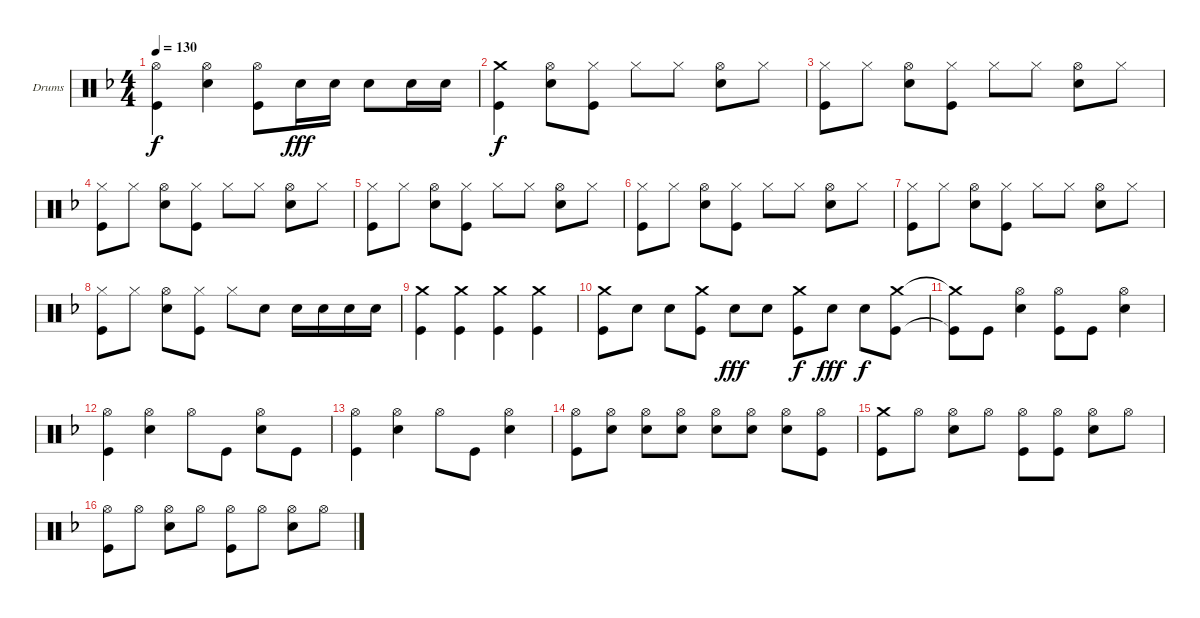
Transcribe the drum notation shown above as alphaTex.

\bracketExtendMode groupsimilarinstruments
\firstSystemTrackNameOrientation horizontal
\otherSystemsTrackNameOrientation horizontal
\track ("Александр Манякин" "Drums") {instrument percussion}
\staff {score}
\articulation defaults
\ts (4 4)
\tempo 130
\clef neutral
\ks f
("Hi-Hat (open)" "Kick (hit)").4{dy f} ("Hi-Hat (open)" "Snare (hit) 2").4 ("Hi-Hat (open)" "Kick (hit)").8 "Snare (hit) 2".16{dy fff} "Snare (hit) 2".16 "Snare (hit) 2".8 "Snare (hit) 2".16 "Snare (hit) 2".16 |
("Crash medium (hit)" "Kick (hit)").4{dy f} ("Hi-Hat (open)" "Snare (hit) 2").8 ("Hi-Hat (closed)" "Kick (hit)").8 "Hi-Hat (closed)".8 "Hi-Hat (closed)".8 ("Hi-Hat (open)" "Snare (hit) 2").8 "Hi-Hat (closed)".8 |
("Hi-Hat (closed)" "Kick (hit)").8 "Hi-Hat (closed)".8 ("Hi-Hat (open)" "Snare (hit) 2").8 ("Hi-Hat (closed)" "Kick (hit)").8 "Hi-Hat (closed)".8 "Hi-Hat (closed)".8 ("Hi-Hat (open)" "Snare (hit) 2").8 "Hi-Hat (closed)".8 |
("Hi-Hat (closed)" "Kick (hit)").8 "Hi-Hat (closed)".8 ("Hi-Hat (open)" "Snare (hit) 2").8 ("Hi-Hat (closed)" "Kick (hit)").8 "Hi-Hat (closed)".8 "Hi-Hat (closed)".8 ("Hi-Hat (open)" "Snare (hit) 2").8 "Hi-Hat (closed)".8 |
("Hi-Hat (closed)" "Kick (hit)").8 "Hi-Hat (closed)".8 ("Hi-Hat (open)" "Snare (hit) 2").8 ("Hi-Hat (closed)" "Kick (hit)").8 "Hi-Hat (closed)".8 "Hi-Hat (closed)".8 ("Hi-Hat (open)" "Snare (hit) 2").8 "Hi-Hat (closed)".8 |
("Hi-Hat (closed)" "Kick (hit)").8 "Hi-Hat (closed)".8 ("Hi-Hat (open)" "Snare (hit) 2").8 ("Hi-Hat (closed)" "Kick (hit)").8 "Hi-Hat (closed)".8 "Hi-Hat (closed)".8 ("Hi-Hat (open)" "Snare (hit) 2").8 "Hi-Hat (closed)".8 |
("Hi-Hat (closed)" "Kick (hit)").8 "Hi-Hat (closed)".8 ("Hi-Hat (open)" "Snare (hit) 2").8 ("Hi-Hat (closed)" "Kick (hit)").8 "Hi-Hat (closed)".8 "Hi-Hat (closed)".8 ("Hi-Hat (open)" "Snare (hit) 2").8 "Hi-Hat (closed)".8 |
("Hi-Hat (closed)" "Kick (hit)").8 "Hi-Hat (closed)".8 ("Hi-Hat (open)" "Snare (hit) 2").8 ("Hi-Hat (closed)" "Kick (hit)").8 "Hi-Hat (closed)".8 "Snare (hit) 2".8 "Snare (hit) 2".16 "Snare (hit) 2".16 "Snare (hit) 2".16 "Snare (hit) 2".16 |
("Crash medium (hit)" "Kick (hit)").4 ("Crash medium (hit)" "Kick (hit)").4 ("Crash medium (hit)" "Kick (hit)").4 ("Crash medium (hit)" "Kick (hit)").4 |
("Crash medium (hit)" "Kick (hit)").8 "Snare (hit) 2".8 "Snare (hit) 2".8 ("Crash medium (hit)" "Kick (hit)").8 "Snare (hit) 2".8{dy fff} "Snare (hit) 2".8 ("Crash medium (hit)" "Kick (hit)").8{dy f} "Snare (hit) 2".8{dy fff} "Snare (hit) 2".8{dy f} ("Crash medium (hit)" "Kick (hit)").8 |
("Crash medium (hit)"{t} "Kick (hit)"{t}).8 "Kick (hit)".8 ("Hi-Hat (open)" "Snare (hit) 2").4 ("Hi-Hat (open)" "Kick (hit)").8 "Kick (hit)".8 ("Hi-Hat (open)" "Snare (hit) 2").4 |
("Hi-Hat (open)" "Kick (hit)").4 ("Hi-Hat (open)" "Snare (hit) 2").4 "Hi-Hat (open)".8 "Kick (hit)".8 ("Hi-Hat (open)" "Snare (hit) 2").8 "Kick (hit)".8 |
("Hi-Hat (open)" "Kick (hit)").4 ("Hi-Hat (open)" "Snare (hit) 2").4 "Hi-Hat (open)".8 "Kick (hit)".8 ("Hi-Hat (open)" "Snare (hit) 2").4 |
("Hi-Hat (open)" "Kick (hit)").8 ("Hi-Hat (open)" "Snare (hit) 2").8 ("Hi-Hat (open)" "Snare (hit) 2").8 ("Hi-Hat (open)" "Snare (hit) 2").8 ("Hi-Hat (open)" "Snare (hit) 2").8 ("Hi-Hat (open)" "Snare (hit) 2").8 ("Hi-Hat (open)" "Snare (hit) 2").8 ("Hi-Hat (open)" "Kick (hit)").8 |
("Crash medium (hit)" "Kick (hit)").8 "Hi-Hat (open)".8 ("Hi-Hat (open)" "Snare (hit) 2").8 "Hi-Hat (open)".8 ("Hi-Hat (open)" "Kick (hit)").8 ("Hi-Hat (open)" "Kick (hit)").8 ("Hi-Hat (open)" "Snare (hit) 2").8 "Hi-Hat (open)".8 |
("Hi-Hat (open)" "Kick (hit)").8 "Hi-Hat (open)".8 ("Hi-Hat (open)" "Snare (hit) 2").8 "Hi-Hat (open)".8 ("Hi-Hat (open)" "Kick (hit)").8 "Hi-Hat (open)".8 ("Hi-Hat (open)" "Snare (hit) 2").8 "Hi-Hat (open)".8
